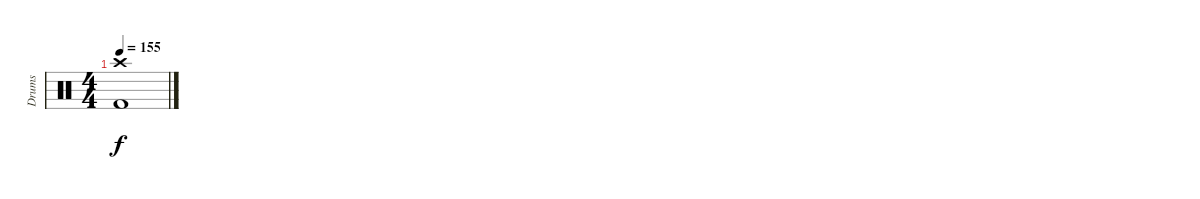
\track ("Drums" "Drums") {instrument percussion}
\staff {score}
\articulation defaults
\ts (4 4)
\tempo 155
\clef neutral
\ks c
("Crash high (hit)" "Kick (hit) 2").1{dy f}
